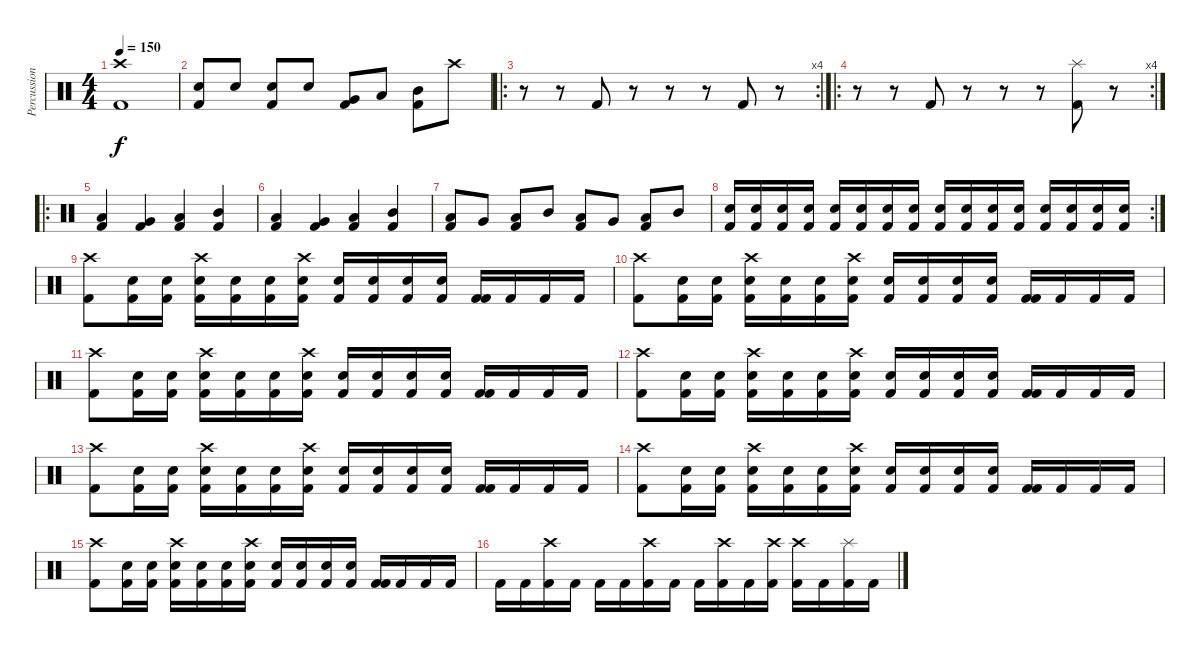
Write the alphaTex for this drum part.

\track ("Percussion" "Percussion") {instrument percussion}
\staff {score}
\articulation defaults
\ts (4 4)
\tempo 150
\clef neutral
\ks c
("Crash high (hit)" "Kick (hit) 2").1{dy f} |
("Kick (hit) 2" "Snare (hit) 2").8 "Snare (hit) 2".8 ("Kick (hit) 2" "Snare (hit) 2").8 "Snare (hit) 2".8 ("Kick (hit) 2" "Very Low Tom (hit)").8 "Low Tom (hit)".8 ("Kick (hit) 2" "Mid Tom (hit)").8 "Crash high (hit)".8 |
\ro
\rc 4
r.8 r.8 "Kick (hit) 2".8 r.8 r.8 r.8 "Kick (hit) 2".8 r.8 |
\ro
\rc 4
r.8 r.8 "Kick (hit) 2".8 r.8 r.8 r.8 ("Splash (hit)" "Kick (hit) 2").8 r.8 |
\ro
("Kick (hit) 2" "Low Floor Tom (hit)").4 ("Kick (hit) 2" "Very Low Tom (hit)").4 ("Kick (hit) 2" "Low Tom (hit)").4 ("Kick (hit) 2" "Mid Tom (hit)").4 |
("Kick (hit) 2" "Low Floor Tom (hit)").4 ("Kick (hit) 2" "Very Low Tom (hit)").4 ("Kick (hit) 2" "Low Tom (hit)").4 ("Kick (hit) 2" "Mid Tom (hit)").4 |
("Kick (hit) 2" "Low Floor Tom (hit)").8 "Very Low Tom (hit)".8 ("Kick (hit) 2" "Low Tom (hit)").8 "Mid Tom (hit)".8 ("Kick (hit) 2" "Low Floor Tom (hit)").8 "Very Low Tom (hit)".8 ("Kick (hit) 2" "Low Tom (hit)").8 "Mid Tom (hit)".8 |
\rc 2
("Kick (hit) 2" "Snare (hit) 2").16 ("Kick (hit) 2" "Snare (hit) 2").16 ("Kick (hit) 2" "Snare (hit) 2").16 ("Kick (hit) 2" "Snare (hit) 2").16 ("Kick (hit) 2" "Snare (hit) 2").16 ("Kick (hit) 2" "Snare (hit) 2").16 ("Kick (hit) 2" "Snare (hit) 2").16 ("Kick (hit) 2" "Snare (hit) 2").16 ("Kick (hit) 2" "Snare (hit) 2").16 ("Kick (hit) 2" "Snare (hit) 2").16 ("Kick (hit) 2" "Snare (hit) 2").16 ("Kick (hit) 2" "Snare (hit) 2").16 ("Kick (hit) 2" "Snare (hit) 2").16 ("Kick (hit) 2" "Snare (hit) 2").16 ("Kick (hit) 2" "Snare (hit) 2").16 ("Kick (hit) 2" "Snare (hit) 2").16 |
("Kick (hit) 2" "Crash high (hit)").8 ("Kick (hit) 2" "Snare (hit) 2").16 ("Snare (hit) 2" "Kick (hit) 2").16 ("Kick (hit) 2" "Snare (hit) 2" "Crash high (hit)").16 ("Snare (hit) 2" "Kick (hit) 2").16 ("Kick (hit) 2" "Snare (hit) 2").16 ("Snare (hit) 2" "Kick (hit) 2" "Crash high (hit)").16 ("Kick (hit) 2" "Snare (hit) 2").16 ("Kick (hit) 2" "Snare (hit) 2").16 ("Kick (hit) 2" "Snare (hit) 2").16 ("Kick (hit) 2" "Snare (hit) 2").16 ("Kick (hit) 2" "Kick (hit) 2").16 "Kick (hit) 2".16 "Kick (hit) 2".16 "Kick (hit) 2".16 |
("Kick (hit) 2" "Crash high (hit)").8 ("Kick (hit) 2" "Snare (hit) 2").16 ("Snare (hit) 2" "Kick (hit) 2").16 ("Kick (hit) 2" "Snare (hit) 2" "Crash high (hit)").16 ("Snare (hit) 2" "Kick (hit) 2").16 ("Kick (hit) 2" "Snare (hit) 2").16 ("Snare (hit) 2" "Kick (hit) 2" "Crash high (hit)").16 ("Kick (hit) 2" "Snare (hit) 2").16 ("Kick (hit) 2" "Snare (hit) 2").16 ("Kick (hit) 2" "Snare (hit) 2").16 ("Kick (hit) 2" "Snare (hit) 2").16 ("Kick (hit) 2" "Kick (hit) 2").16 "Kick (hit) 2".16 "Kick (hit) 2".16 "Kick (hit) 2".16 |
("Kick (hit) 2" "Crash high (hit)").8 ("Kick (hit) 2" "Snare (hit) 2").16 ("Snare (hit) 2" "Kick (hit) 2").16 ("Kick (hit) 2" "Snare (hit) 2" "Crash high (hit)").16 ("Snare (hit) 2" "Kick (hit) 2").16 ("Kick (hit) 2" "Snare (hit) 2").16 ("Snare (hit) 2" "Kick (hit) 2" "Crash high (hit)").16 ("Kick (hit) 2" "Snare (hit) 2").16 ("Kick (hit) 2" "Snare (hit) 2").16 ("Kick (hit) 2" "Snare (hit) 2").16 ("Kick (hit) 2" "Snare (hit) 2").16 ("Kick (hit) 2" "Kick (hit) 2").16 "Kick (hit) 2".16 "Kick (hit) 2".16 "Kick (hit) 2".16 |
("Kick (hit) 2" "Crash high (hit)").8 ("Kick (hit) 2" "Snare (hit) 2").16 ("Snare (hit) 2" "Kick (hit) 2").16 ("Kick (hit) 2" "Snare (hit) 2" "Crash high (hit)").16 ("Snare (hit) 2" "Kick (hit) 2").16 ("Kick (hit) 2" "Snare (hit) 2").16 ("Snare (hit) 2" "Kick (hit) 2" "Crash high (hit)").16 ("Kick (hit) 2" "Snare (hit) 2").16 ("Kick (hit) 2" "Snare (hit) 2").16 ("Kick (hit) 2" "Snare (hit) 2").16 ("Kick (hit) 2" "Snare (hit) 2").16 ("Kick (hit) 2" "Kick (hit) 2").16 "Kick (hit) 2".16 "Kick (hit) 2".16 "Kick (hit) 2".16 |
("Kick (hit) 2" "Crash high (hit)").8 ("Kick (hit) 2" "Snare (hit) 2").16 ("Snare (hit) 2" "Kick (hit) 2").16 ("Kick (hit) 2" "Snare (hit) 2" "Crash high (hit)").16 ("Snare (hit) 2" "Kick (hit) 2").16 ("Kick (hit) 2" "Snare (hit) 2").16 ("Snare (hit) 2" "Kick (hit) 2" "Crash high (hit)").16 ("Kick (hit) 2" "Snare (hit) 2").16 ("Kick (hit) 2" "Snare (hit) 2").16 ("Kick (hit) 2" "Snare (hit) 2").16 ("Kick (hit) 2" "Snare (hit) 2").16 ("Kick (hit) 2" "Kick (hit) 2").16 "Kick (hit) 2".16 "Kick (hit) 2".16 "Kick (hit) 2".16 |
("Kick (hit) 2" "Crash high (hit)").8 ("Kick (hit) 2" "Snare (hit) 2").16 ("Snare (hit) 2" "Kick (hit) 2").16 ("Kick (hit) 2" "Snare (hit) 2" "Crash high (hit)").16 ("Snare (hit) 2" "Kick (hit) 2").16 ("Kick (hit) 2" "Snare (hit) 2").16 ("Snare (hit) 2" "Kick (hit) 2" "Crash high (hit)").16 ("Kick (hit) 2" "Snare (hit) 2").16 ("Kick (hit) 2" "Snare (hit) 2").16 ("Kick (hit) 2" "Snare (hit) 2").16 ("Kick (hit) 2" "Snare (hit) 2").16 ("Kick (hit) 2" "Kick (hit) 2").16 "Kick (hit) 2".16 "Kick (hit) 2".16 "Kick (hit) 2".16 |
("Kick (hit) 2" "Crash high (hit)").8 ("Kick (hit) 2" "Snare (hit) 2").16 ("Snare (hit) 2" "Kick (hit) 2").16 ("Kick (hit) 2" "Snare (hit) 2" "Crash high (hit)").16 ("Snare (hit) 2" "Kick (hit) 2").16 ("Kick (hit) 2" "Snare (hit) 2").16 ("Snare (hit) 2" "Kick (hit) 2" "Crash high (hit)").16 ("Kick (hit) 2" "Snare (hit) 2").16 ("Kick (hit) 2" "Snare (hit) 2").16 ("Kick (hit) 2" "Snare (hit) 2").16 ("Kick (hit) 2" "Snare (hit) 2").16 ("Kick (hit) 2" "Kick (hit) 2").16 "Kick (hit) 2".16 "Kick (hit) 2".16 "Kick (hit) 2".16 |
"Kick (hit) 2".16 "Kick (hit) 2".16 ("Crash high (hit)" "Kick (hit) 2").16 "Kick (hit) 2".16 "Kick (hit) 2".16 "Kick (hit) 2".16 ("Crash high (hit)" "Kick (hit) 2").16 "Kick (hit) 2".16 "Kick (hit) 2".16 ("Crash high (hit)" "Kick (hit) 2").16 "Kick (hit) 2".16 ("Crash high (hit)" "Kick (hit) 2").16 ("Crash high (hit)" "Kick (hit) 2").16 "Kick (hit) 2".16 ("Splash (hit)" "Kick (hit) 2").16 "Kick (hit) 2".16
